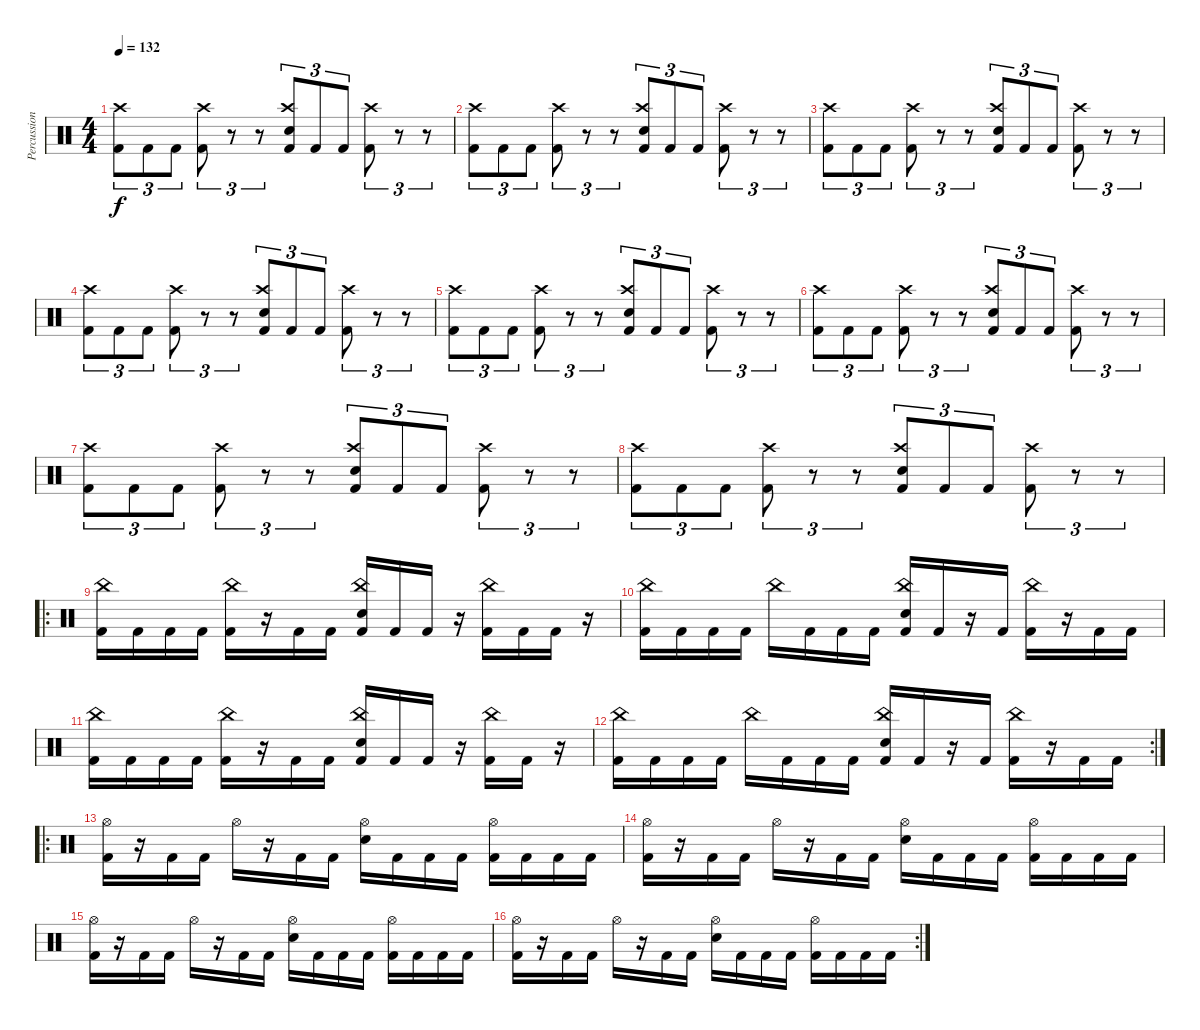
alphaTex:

\track ("Percussion" "Percussion") {instrument percussion}
\staff {score}
\articulation defaults
\ts (4 4)
\tempo 132
\clef neutral
\ks c
("Kick (hit) 2" "Crash high (hit)").8{tu (3 2) dy f} "Kick (hit) 2".8{tu (3 2)} "Kick (hit) 2".8{tu (3 2)} ("Kick (hit) 2" "Crash high (hit)").8{tu (3 2)} r.8{tu (3 2)} r.8{tu (3 2)} ("Kick (hit) 2" "Electric Snare (hit)" "Crash high (hit)").8{tu (3 2)} "Kick (hit) 2".8{tu (3 2)} "Kick (hit) 2".8{tu (3 2)} ("Kick (hit) 2" "Crash high (hit)").8{tu (3 2)} r.8{tu (3 2)} r.8{tu (3 2)} |
("Kick (hit) 2" "Crash high (hit)").8{tu (3 2)} "Kick (hit) 2".8{tu (3 2)} "Kick (hit) 2".8{tu (3 2)} ("Kick (hit) 2" "Crash high (hit)").8{tu (3 2)} r.8{tu (3 2)} r.8{tu (3 2)} ("Kick (hit) 2" "Electric Snare (hit)" "Crash high (hit)").8{tu (3 2)} "Kick (hit) 2".8{tu (3 2)} "Kick (hit) 2".8{tu (3 2)} ("Kick (hit) 2" "Crash high (hit)").8{tu (3 2)} r.8{tu (3 2)} r.8{tu (3 2)} |
("Kick (hit) 2" "Crash high (hit)").8{tu (3 2)} "Kick (hit) 2".8{tu (3 2)} "Kick (hit) 2".8{tu (3 2)} ("Kick (hit) 2" "Crash high (hit)").8{tu (3 2)} r.8{tu (3 2)} r.8{tu (3 2)} ("Kick (hit) 2" "Electric Snare (hit)" "Crash high (hit)").8{tu (3 2)} "Kick (hit) 2".8{tu (3 2)} "Kick (hit) 2".8{tu (3 2)} ("Kick (hit) 2" "Crash high (hit)").8{tu (3 2)} r.8{tu (3 2)} r.8{tu (3 2)} |
("Kick (hit) 2" "Crash high (hit)").8{tu (3 2)} "Kick (hit) 2".8{tu (3 2)} "Kick (hit) 2".8{tu (3 2)} ("Kick (hit) 2" "Crash high (hit)").8{tu (3 2)} r.8{tu (3 2)} r.8{tu (3 2)} ("Kick (hit) 2" "Electric Snare (hit)" "Crash high (hit)").8{tu (3 2)} "Kick (hit) 2".8{tu (3 2)} "Kick (hit) 2".8{tu (3 2)} ("Kick (hit) 2" "Crash high (hit)").8{tu (3 2)} r.8{tu (3 2)} r.8{tu (3 2)} |
("Kick (hit) 2" "Crash high (hit)").8{tu (3 2)} "Kick (hit) 2".8{tu (3 2)} "Kick (hit) 2".8{tu (3 2)} ("Kick (hit) 2" "Crash high (hit)").8{tu (3 2)} r.8{tu (3 2)} r.8{tu (3 2)} ("Kick (hit) 2" "Electric Snare (hit)" "Crash high (hit)").8{tu (3 2)} "Kick (hit) 2".8{tu (3 2)} "Kick (hit) 2".8{tu (3 2)} ("Kick (hit) 2" "Crash high (hit)").8{tu (3 2)} r.8{tu (3 2)} r.8{tu (3 2)} |
("Kick (hit) 2" "Crash high (hit)").8{tu (3 2)} "Kick (hit) 2".8{tu (3 2)} "Kick (hit) 2".8{tu (3 2)} ("Kick (hit) 2" "Crash high (hit)").8{tu (3 2)} r.8{tu (3 2)} r.8{tu (3 2)} ("Kick (hit) 2" "Electric Snare (hit)" "Crash high (hit)").8{tu (3 2)} "Kick (hit) 2".8{tu (3 2)} "Kick (hit) 2".8{tu (3 2)} ("Kick (hit) 2" "Crash high (hit)").8{tu (3 2)} r.8{tu (3 2)} r.8{tu (3 2)} |
("Kick (hit) 2" "Crash high (hit)").8{tu (3 2)} "Kick (hit) 2".8{tu (3 2)} "Kick (hit) 2".8{tu (3 2)} ("Kick (hit) 2" "Crash high (hit)").8{tu (3 2)} r.8{tu (3 2)} r.8{tu (3 2)} ("Kick (hit) 2" "Electric Snare (hit)" "Crash high (hit)").8{tu (3 2)} "Kick (hit) 2".8{tu (3 2)} "Kick (hit) 2".8{tu (3 2)} ("Kick (hit) 2" "Crash high (hit)").8{tu (3 2)} r.8{tu (3 2)} r.8{tu (3 2)} |
("Kick (hit) 2" "Crash high (hit)").8{tu (3 2)} "Kick (hit) 2".8{tu (3 2)} "Kick (hit) 2".8{tu (3 2)} ("Kick (hit) 2" "Crash high (hit)").8{tu (3 2)} r.8{tu (3 2)} r.8{tu (3 2)} ("Kick (hit) 2" "Electric Snare (hit)" "Crash high (hit)").8{tu (3 2)} "Kick (hit) 2".8{tu (3 2)} "Kick (hit) 2".8{tu (3 2)} ("Kick (hit) 2" "Crash high (hit)").8{tu (3 2)} r.8{tu (3 2)} r.8{tu (3 2)} |
\ro
("China (hit)" "Kick (hit) 2").16 "Kick (hit) 2".16 "Kick (hit) 2".16 "Kick (hit) 2".16 ("China (hit)" "Kick (hit) 2").16 r.16 "Kick (hit) 2".16 "Kick (hit) 2".16 ("China (hit)" "Snare (hit) 2" "Kick (hit) 2").16 "Kick (hit) 2".16 "Kick (hit) 2".16 r.16 ("China (hit)" "Kick (hit) 2").16 "Kick (hit) 2".16 "Kick (hit) 2".16 r.16 |
("China (hit)" "Kick (hit) 2").16 "Kick (hit) 2".16 "Kick (hit) 2".16 "Kick (hit) 2".16 "China (hit)".16 "Kick (hit) 2".16 "Kick (hit) 2".16 "Kick (hit) 2".16 ("China (hit)" "Snare (hit) 2" "Kick (hit) 2").16 "Kick (hit) 2".16 r.16 "Kick (hit) 2".16 ("China (hit)" "Kick (hit) 2").16 r.16 "Kick (hit) 2".16 "Kick (hit) 2".16 |
("China (hit)" "Kick (hit) 2").16 "Kick (hit) 2".16 "Kick (hit) 2".16 "Kick (hit) 2".16 ("China (hit)" "Kick (hit) 2").16 r.16 "Kick (hit) 2".16 "Kick (hit) 2".16 ("China (hit)" "Snare (hit) 2" "Kick (hit) 2").16 "Kick (hit) 2".16 "Kick (hit) 2".16 r.16 ("China (hit)" "Kick (hit) 2").16 "Kick (hit) 2".16 r.16 |
\rc 2
("China (hit)" "Kick (hit) 2").16 "Kick (hit) 2".16 "Kick (hit) 2".16 "Kick (hit) 2".16 "China (hit)".16 "Kick (hit) 2".16 "Kick (hit) 2".16 "Kick (hit) 2".16 ("China (hit)" "Snare (hit) 2" "Kick (hit) 2").16 "Kick (hit) 2".16 r.16 "Kick (hit) 2".16 ("China (hit)" "Kick (hit) 2").16 r.16 "Kick (hit) 2".16 "Kick (hit) 2".16 |
\ro
("Hi-Hat (open)" "Kick (hit) 2").16 r.16 "Kick (hit) 2".16 "Kick (hit) 2".16 "Hi-Hat (open)".16 r.16 "Kick (hit) 2".16 "Kick (hit) 2".16 ("Hi-Hat (open)" "Electric Snare (hit)").16 "Kick (hit) 2".16 "Kick (hit) 2".16 "Kick (hit) 2".16 ("Hi-Hat (open)" "Kick (hit) 2").16 "Kick (hit) 2".16 "Kick (hit) 2".16 "Kick (hit) 2".16 |
("Hi-Hat (open)" "Kick (hit) 2").16 r.16 "Kick (hit) 2".16 "Kick (hit) 2".16 "Hi-Hat (open)".16 r.16 "Kick (hit) 2".16 "Kick (hit) 2".16 ("Hi-Hat (open)" "Electric Snare (hit)").16 "Kick (hit) 2".16 "Kick (hit) 2".16 "Kick (hit) 2".16 ("Hi-Hat (open)" "Kick (hit) 2").16 "Kick (hit) 2".16 "Kick (hit) 2".16 "Kick (hit) 2".16 |
("Hi-Hat (open)" "Kick (hit) 2").16 r.16 "Kick (hit) 2".16 "Kick (hit) 2".16 "Hi-Hat (open)".16 r.16 "Kick (hit) 2".16 "Kick (hit) 2".16 ("Hi-Hat (open)" "Electric Snare (hit)").16 "Kick (hit) 2".16 "Kick (hit) 2".16 "Kick (hit) 2".16 ("Hi-Hat (open)" "Kick (hit) 2").16 "Kick (hit) 2".16 "Kick (hit) 2".16 "Kick (hit) 2".16 |
\rc 2
("Hi-Hat (open)" "Kick (hit) 2").16 r.16 "Kick (hit) 2".16 "Kick (hit) 2".16 "Hi-Hat (open)".16 r.16 "Kick (hit) 2".16 "Kick (hit) 2".16 ("Hi-Hat (open)" "Electric Snare (hit)").16 "Kick (hit) 2".16 "Kick (hit) 2".16 "Kick (hit) 2".16 ("Hi-Hat (open)" "Kick (hit) 2").16 "Kick (hit) 2".16 "Kick (hit) 2".16 "Kick (hit) 2".16
